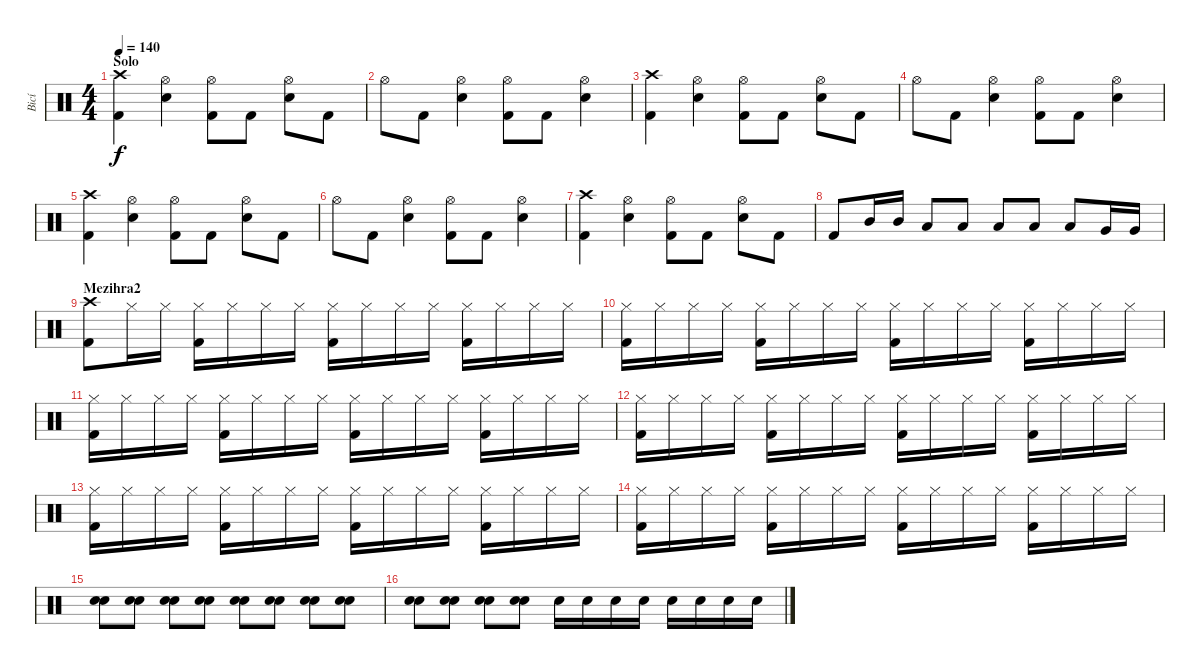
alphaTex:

\track ("Bicí" "Bicí") {instrument percussion}
\staff {score}
\articulation defaults
\ts (4 4)
\section ("" "Solo")
\tempo 140
\clef neutral
\ks c
("Crash high (hit)" "Kick (hit) 2").4{dy f} ("Hi-Hat (open)" "Snare (hit) 2").4 ("Hi-Hat (open)" "Kick (hit) 2").8 "Kick (hit) 2".8 ("Hi-Hat (open)" "Snare (hit) 2").8 "Kick (hit) 2".8 |
"Hi-Hat (open)".8 "Kick (hit) 2".8 ("Hi-Hat (open)" "Snare (hit) 2").4 ("Hi-Hat (open)" "Kick (hit) 2").8 "Kick (hit) 2".8 ("Hi-Hat (open)" "Snare (hit) 2").4 |
("Crash high (hit)" "Kick (hit) 2").4 ("Hi-Hat (open)" "Snare (hit) 2").4 ("Hi-Hat (open)" "Kick (hit) 2").8 "Kick (hit) 2".8 ("Hi-Hat (open)" "Snare (hit) 2").8 "Kick (hit) 2".8 |
"Hi-Hat (open)".8 "Kick (hit) 2".8 ("Hi-Hat (open)" "Snare (hit) 2").4 ("Hi-Hat (open)" "Kick (hit) 2").8 "Kick (hit) 2".8 ("Hi-Hat (open)" "Snare (hit) 2").4 |
("Crash high (hit)" "Kick (hit) 2").4 ("Hi-Hat (open)" "Snare (hit) 2").4 ("Hi-Hat (open)" "Kick (hit) 2").8 "Kick (hit) 2".8 ("Hi-Hat (open)" "Snare (hit) 2").8 "Kick (hit) 2".8 |
"Hi-Hat (open)".8 "Kick (hit) 2".8 ("Hi-Hat (open)" "Snare (hit) 2").4 ("Hi-Hat (open)" "Kick (hit) 2").8 "Kick (hit) 2".8 ("Hi-Hat (open)" "Snare (hit) 2").4 |
("Crash high (hit)" "Kick (hit) 2").4 ("Hi-Hat (open)" "Snare (hit) 2").4 ("Hi-Hat (open)" "Kick (hit) 2").8 "Kick (hit) 2".8 ("Hi-Hat (open)" "Snare (hit) 2").8 "Kick (hit) 2".8 |
"Kick (hit) 2".8 "Mid Tom (hit)".16 "Mid Tom (hit)".16 "Low Tom (hit)".8 "Low Tom (hit)".8 "Low Tom (hit)".8 "Low Tom (hit)".8 "Low Tom (hit)".8 "Very Low Tom (hit)".16 "Very Low Tom (hit)".16 |
\section ("" "Mezihra2")
("Crash high (hit)" "Kick (hit) 2").8 "Hi-Hat (closed)".16 "Hi-Hat (closed)".16 ("Hi-Hat (closed)" "Kick (hit) 2").16 "Hi-Hat (closed)".16 "Hi-Hat (closed)".16 "Hi-Hat (closed)".16 ("Hi-Hat (closed)" "Kick (hit) 2").16 "Hi-Hat (closed)".16 "Hi-Hat (closed)".16 "Hi-Hat (closed)".16 ("Hi-Hat (closed)" "Kick (hit) 2").16 "Hi-Hat (closed)".16 "Hi-Hat (closed)".16 "Hi-Hat (closed)".16 |
("Hi-Hat (closed)" "Kick (hit) 2").16 "Hi-Hat (closed)".16 "Hi-Hat (closed)".16 "Hi-Hat (closed)".16 ("Hi-Hat (closed)" "Kick (hit) 2").16 "Hi-Hat (closed)".16 "Hi-Hat (closed)".16 "Hi-Hat (closed)".16 ("Hi-Hat (closed)" "Kick (hit) 2").16 "Hi-Hat (closed)".16 "Hi-Hat (closed)".16 "Hi-Hat (closed)".16 ("Hi-Hat (closed)" "Kick (hit) 2").16 "Hi-Hat (closed)".16 "Hi-Hat (closed)".16 "Hi-Hat (closed)".16 |
("Hi-Hat (closed)" "Kick (hit) 2").16 "Hi-Hat (closed)".16 "Hi-Hat (closed)".16 "Hi-Hat (closed)".16 ("Hi-Hat (closed)" "Kick (hit) 2").16 "Hi-Hat (closed)".16 "Hi-Hat (closed)".16 "Hi-Hat (closed)".16 ("Hi-Hat (closed)" "Kick (hit) 2").16 "Hi-Hat (closed)".16 "Hi-Hat (closed)".16 "Hi-Hat (closed)".16 ("Hi-Hat (closed)" "Kick (hit) 2").16 "Hi-Hat (closed)".16 "Hi-Hat (closed)".16 "Hi-Hat (closed)".16 |
("Hi-Hat (closed)" "Kick (hit) 2").16 "Hi-Hat (closed)".16 "Hi-Hat (closed)".16 "Hi-Hat (closed)".16 ("Hi-Hat (closed)" "Kick (hit) 2").16 "Hi-Hat (closed)".16 "Hi-Hat (closed)".16 "Hi-Hat (closed)".16 ("Hi-Hat (closed)" "Kick (hit) 2").16 "Hi-Hat (closed)".16 "Hi-Hat (closed)".16 "Hi-Hat (closed)".16 ("Hi-Hat (closed)" "Kick (hit) 2").16 "Hi-Hat (closed)".16 "Hi-Hat (closed)".16 "Hi-Hat (closed)".16 |
("Hi-Hat (closed)" "Kick (hit) 2").16 "Hi-Hat (closed)".16 "Hi-Hat (closed)".16 "Hi-Hat (closed)".16 ("Hi-Hat (closed)" "Kick (hit) 2").16 "Hi-Hat (closed)".16 "Hi-Hat (closed)".16 "Hi-Hat (closed)".16 ("Hi-Hat (closed)" "Kick (hit) 2").16 "Hi-Hat (closed)".16 "Hi-Hat (closed)".16 "Hi-Hat (closed)".16 ("Hi-Hat (closed)" "Kick (hit) 2").16 "Hi-Hat (closed)".16 "Hi-Hat (closed)".16 "Hi-Hat (closed)".16 |
("Hi-Hat (closed)" "Kick (hit) 2").16 "Hi-Hat (closed)".16 "Hi-Hat (closed)".16 "Hi-Hat (closed)".16 ("Hi-Hat (closed)" "Kick (hit) 2").16 "Hi-Hat (closed)".16 "Hi-Hat (closed)".16 "Hi-Hat (closed)".16 ("Hi-Hat (closed)" "Kick (hit) 2").16 "Hi-Hat (closed)".16 "Hi-Hat (closed)".16 "Hi-Hat (closed)".16 ("Hi-Hat (closed)" "Kick (hit) 2").16 "Hi-Hat (closed)".16 "Hi-Hat (closed)".16 "Hi-Hat (closed)".16 |
("Snare (hit) 2" "Snare (hit) 2").8 ("Snare (hit) 2" "Snare (hit) 2").8 ("Snare (hit) 2" "Snare (hit) 2").8 ("Snare (hit) 2" "Snare (hit) 2").8 ("Snare (hit) 2" "Snare (hit) 2").8 ("Snare (hit) 2" "Snare (hit) 2").8 ("Snare (hit) 2" "Snare (hit) 2").8 ("Snare (hit) 2" "Snare (hit) 2").8 |
("Snare (hit) 2" "Snare (hit) 2").8 ("Snare (hit) 2" "Snare (hit) 2").8 ("Snare (hit) 2" "Snare (hit) 2").8 ("Snare (hit) 2" "Snare (hit) 2").8 "Snare (hit) 2".16 "Snare (hit) 2".16 "Snare (hit) 2".16 "Snare (hit) 2".16 "Snare (hit) 2".16 "Snare (hit) 2".16 "Snare (hit) 2".16 "Snare (hit) 2".16
